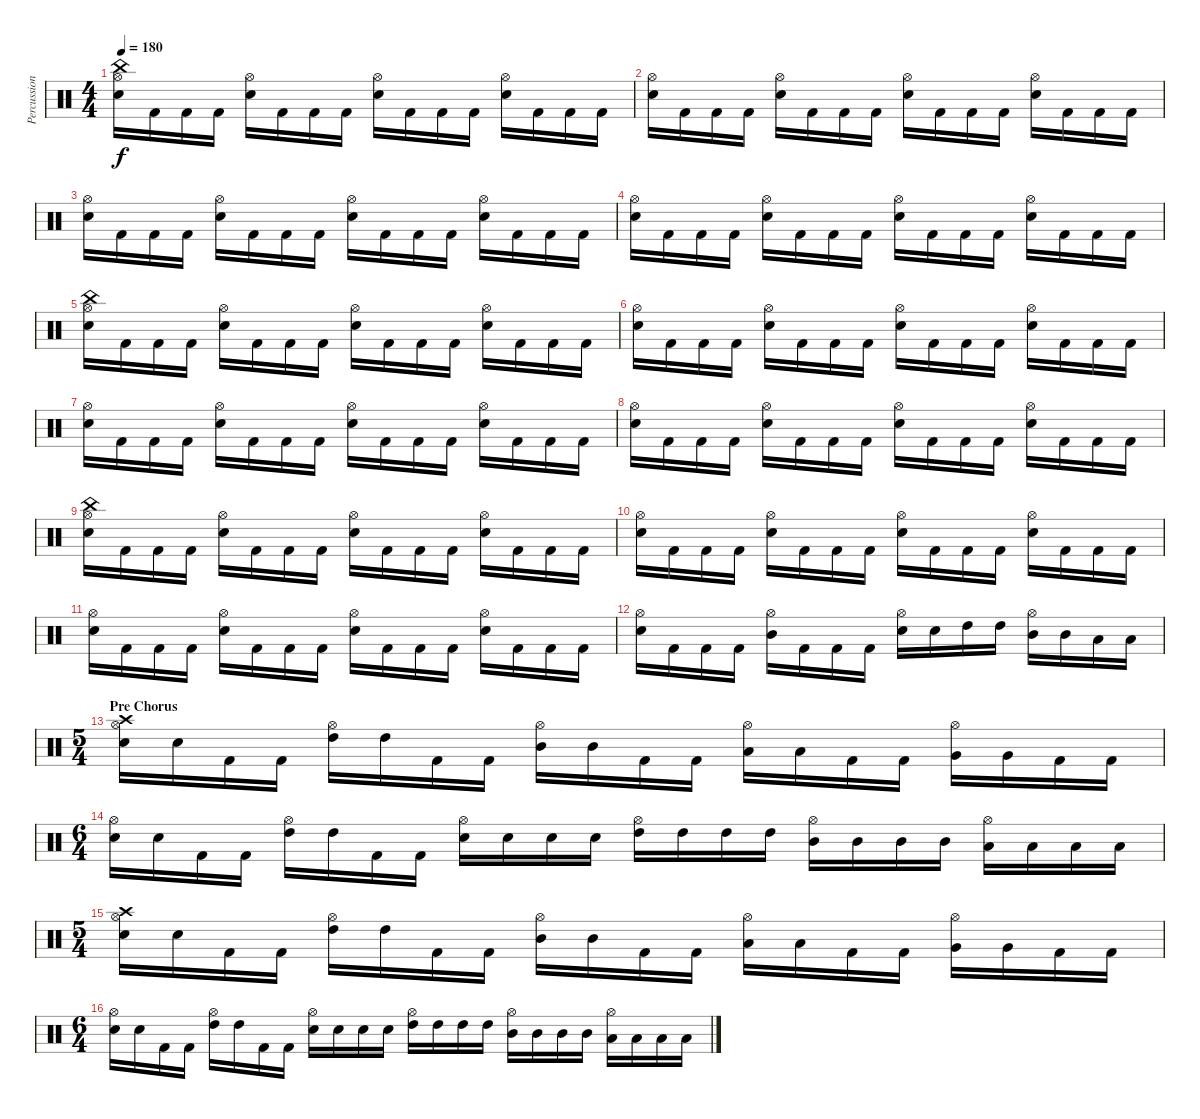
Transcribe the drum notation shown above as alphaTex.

\track ("Percussions" "Percussion") {instrument percussion}
\staff {score}
\articulation defaults
\ts (4 4)
\tempo 180
\clef neutral
\ks c
("China (hit)" "Hi-Hat (open)" "Electric Snare (hit)").16{dy f} "Kick (hit) 2".16 "Kick (hit) 2".16 "Kick (hit) 2".16 ("Hi-Hat (open)" "Electric Snare (hit)").16 "Kick (hit) 2".16 "Kick (hit) 2".16 "Kick (hit) 2".16 ("Hi-Hat (open)" "Electric Snare (hit)").16 "Kick (hit) 2".16 "Kick (hit) 2".16 "Kick (hit) 2".16 ("Hi-Hat (open)" "Electric Snare (hit)").16 "Kick (hit) 2".16 "Kick (hit) 2".16 "Kick (hit) 2".16 |
("Hi-Hat (open)" "Electric Snare (hit)").16 "Kick (hit) 2".16 "Kick (hit) 2".16 "Kick (hit) 2".16 ("Hi-Hat (open)" "Electric Snare (hit)").16 "Kick (hit) 2".16 "Kick (hit) 2".16 "Kick (hit) 2".16 ("Hi-Hat (open)" "Electric Snare (hit)").16 "Kick (hit) 2".16 "Kick (hit) 2".16 "Kick (hit) 2".16 ("Hi-Hat (open)" "Electric Snare (hit)").16 "Kick (hit) 2".16 "Kick (hit) 2".16 "Kick (hit) 2".16 |
("Hi-Hat (open)" "Electric Snare (hit)").16 "Kick (hit) 2".16 "Kick (hit) 2".16 "Kick (hit) 2".16 ("Hi-Hat (open)" "Electric Snare (hit)").16 "Kick (hit) 2".16 "Kick (hit) 2".16 "Kick (hit) 2".16 ("Hi-Hat (open)" "Electric Snare (hit)").16 "Kick (hit) 2".16 "Kick (hit) 2".16 "Kick (hit) 2".16 ("Hi-Hat (open)" "Electric Snare (hit)").16 "Kick (hit) 2".16 "Kick (hit) 2".16 "Kick (hit) 2".16 |
("Hi-Hat (open)" "Electric Snare (hit)").16 "Kick (hit) 2".16 "Kick (hit) 2".16 "Kick (hit) 2".16 ("Hi-Hat (open)" "Electric Snare (hit)").16 "Kick (hit) 2".16 "Kick (hit) 2".16 "Kick (hit) 2".16 ("Hi-Hat (open)" "Electric Snare (hit)").16 "Kick (hit) 2".16 "Kick (hit) 2".16 "Kick (hit) 2".16 ("Hi-Hat (open)" "Electric Snare (hit)").16 "Kick (hit) 2".16 "Kick (hit) 2".16 "Kick (hit) 2".16 |
("China (hit)" "Hi-Hat (open)" "Electric Snare (hit)").16 "Kick (hit) 2".16 "Kick (hit) 2".16 "Kick (hit) 2".16 ("Hi-Hat (open)" "Electric Snare (hit)").16 "Kick (hit) 2".16 "Kick (hit) 2".16 "Kick (hit) 2".16 ("Hi-Hat (open)" "Electric Snare (hit)").16 "Kick (hit) 2".16 "Kick (hit) 2".16 "Kick (hit) 2".16 ("Hi-Hat (open)" "Electric Snare (hit)").16 "Kick (hit) 2".16 "Kick (hit) 2".16 "Kick (hit) 2".16 |
("Hi-Hat (open)" "Electric Snare (hit)").16 "Kick (hit) 2".16 "Kick (hit) 2".16 "Kick (hit) 2".16 ("Hi-Hat (open)" "Electric Snare (hit)").16 "Kick (hit) 2".16 "Kick (hit) 2".16 "Kick (hit) 2".16 ("Hi-Hat (open)" "Electric Snare (hit)").16 "Kick (hit) 2".16 "Kick (hit) 2".16 "Kick (hit) 2".16 ("Hi-Hat (open)" "Electric Snare (hit)").16 "Kick (hit) 2".16 "Kick (hit) 2".16 "Kick (hit) 2".16 |
("Hi-Hat (open)" "Electric Snare (hit)").16 "Kick (hit) 2".16 "Kick (hit) 2".16 "Kick (hit) 2".16 ("Hi-Hat (open)" "Electric Snare (hit)").16 "Kick (hit) 2".16 "Kick (hit) 2".16 "Kick (hit) 2".16 ("Hi-Hat (open)" "Electric Snare (hit)").16 "Kick (hit) 2".16 "Kick (hit) 2".16 "Kick (hit) 2".16 ("Hi-Hat (open)" "Electric Snare (hit)").16 "Kick (hit) 2".16 "Kick (hit) 2".16 "Kick (hit) 2".16 |
("Hi-Hat (open)" "Electric Snare (hit)").16 "Kick (hit) 2".16 "Kick (hit) 2".16 "Kick (hit) 2".16 ("Hi-Hat (open)" "Electric Snare (hit)").16 "Kick (hit) 2".16 "Kick (hit) 2".16 "Kick (hit) 2".16 ("Hi-Hat (open)" "Electric Snare (hit)").16 "Kick (hit) 2".16 "Kick (hit) 2".16 "Kick (hit) 2".16 ("Hi-Hat (open)" "Electric Snare (hit)").16 "Kick (hit) 2".16 "Kick (hit) 2".16 "Kick (hit) 2".16 |
("China (hit)" "Hi-Hat (open)" "Electric Snare (hit)").16 "Kick (hit) 2".16 "Kick (hit) 2".16 "Kick (hit) 2".16 ("Hi-Hat (open)" "Electric Snare (hit)").16 "Kick (hit) 2".16 "Kick (hit) 2".16 "Kick (hit) 2".16 ("Hi-Hat (open)" "Electric Snare (hit)").16 "Kick (hit) 2".16 "Kick (hit) 2".16 "Kick (hit) 2".16 ("Hi-Hat (open)" "Electric Snare (hit)").16 "Kick (hit) 2".16 "Kick (hit) 2".16 "Kick (hit) 2".16 |
("Hi-Hat (open)" "Electric Snare (hit)").16 "Kick (hit) 2".16 "Kick (hit) 2".16 "Kick (hit) 2".16 ("Hi-Hat (open)" "Electric Snare (hit)").16 "Kick (hit) 2".16 "Kick (hit) 2".16 "Kick (hit) 2".16 ("Hi-Hat (open)" "Electric Snare (hit)").16 "Kick (hit) 2".16 "Kick (hit) 2".16 "Kick (hit) 2".16 ("Hi-Hat (open)" "Electric Snare (hit)").16 "Kick (hit) 2".16 "Kick (hit) 2".16 "Kick (hit) 2".16 |
("Hi-Hat (open)" "Electric Snare (hit)").16 "Kick (hit) 2".16 "Kick (hit) 2".16 "Kick (hit) 2".16 ("Hi-Hat (open)" "Electric Snare (hit)").16 "Kick (hit) 2".16 "Kick (hit) 2".16 "Kick (hit) 2".16 ("Hi-Hat (open)" "Electric Snare (hit)").16 "Kick (hit) 2".16 "Kick (hit) 2".16 "Kick (hit) 2".16 ("Hi-Hat (open)" "Electric Snare (hit)").16 "Kick (hit) 2".16 "Kick (hit) 2".16 "Kick (hit) 2".16 |
("Hi-Hat (open)" "Electric Snare (hit)").16 "Kick (hit) 2".16 "Kick (hit) 2".16 "Kick (hit) 2".16 ("Hi-Hat (open)" "Mid Tom (hit)").16 "Kick (hit) 2".16 "Kick (hit) 2".16 "Kick (hit) 2".16 ("Hi-Hat (open)" "Electric Snare (hit)").16 "Electric Snare (hit)".16 "High Tom (hit)".16 "High Tom (hit)".16 ("Hi-Hat (open)" "Mid Tom (hit)").16 "Mid Tom (hit)".16 "Low Tom (hit)".16 "Low Tom (hit)".16 |
\ts (5 4)
\section ("" "Pre Chorus")
("Crash high (hit)" "Hi-Hat (open)" "Electric Snare (hit)").16 "Electric Snare (hit)".16 "Kick (hit) 2".16 "Kick (hit) 2".16 ("Hi-Hat (open)" "High Tom (hit)").16 "High Tom (hit)".16 "Kick (hit) 2".16 "Kick (hit) 2".16 ("Hi-Hat (open)" "Mid Tom (hit)").16 "Mid Tom (hit)".16 "Kick (hit) 2".16 "Kick (hit) 2".16 ("Hi-Hat (open)" "Low Tom (hit)").16 "Low Tom (hit)".16 "Kick (hit) 2".16 "Kick (hit) 2".16 ("Hi-Hat (open)" "Very Low Tom (hit)").16 "Very Low Tom (hit)".16 "Kick (hit) 2".16 "Kick (hit) 2".16 |
\ts (6 4)
("Hi-Hat (open)" "Electric Snare (hit)").16 "Electric Snare (hit)".16 "Kick (hit) 2".16 "Kick (hit) 2".16 ("Hi-Hat (open)" "High Tom (hit)").16 "High Tom (hit)".16 "Kick (hit) 2".16 "Kick (hit) 2".16 ("Hi-Hat (open)" "Electric Snare (hit)").16 "Electric Snare (hit)".16 "Electric Snare (hit)".16 "Electric Snare (hit)".16 ("Hi-Hat (open)" "High Tom (hit)").16 "High Tom (hit)".16 "High Tom (hit)".16 "High Tom (hit)".16 ("Hi-Hat (open)" "Mid Tom (hit)").16 "Mid Tom (hit)".16 "Mid Tom (hit)".16 "Mid Tom (hit)".16 ("Hi-Hat (open)" "Low Tom (hit)").16 "Low Tom (hit)".16 "Low Tom (hit)".16 "Low Tom (hit)".16 |
\ts (5 4)
("Crash high (hit)" "Hi-Hat (open)" "Electric Snare (hit)").16 "Electric Snare (hit)".16 "Kick (hit) 2".16 "Kick (hit) 2".16 ("Hi-Hat (open)" "High Tom (hit)").16 "High Tom (hit)".16 "Kick (hit) 2".16 "Kick (hit) 2".16 ("Hi-Hat (open)" "Mid Tom (hit)").16 "Mid Tom (hit)".16 "Kick (hit) 2".16 "Kick (hit) 2".16 ("Hi-Hat (open)" "Low Tom (hit)").16 "Low Tom (hit)".16 "Kick (hit) 2".16 "Kick (hit) 2".16 ("Hi-Hat (open)" "Very Low Tom (hit)").16 "Very Low Tom (hit)".16 "Kick (hit) 2".16 "Kick (hit) 2".16 |
\ts (6 4)
("Hi-Hat (open)" "Electric Snare (hit)").16 "Electric Snare (hit)".16 "Kick (hit) 2".16 "Kick (hit) 2".16 ("Hi-Hat (open)" "High Tom (hit)").16 "High Tom (hit)".16 "Kick (hit) 2".16 "Kick (hit) 2".16 ("Hi-Hat (open)" "Electric Snare (hit)").16 "Electric Snare (hit)".16 "Electric Snare (hit)".16 "Electric Snare (hit)".16 ("Hi-Hat (open)" "High Tom (hit)").16 "High Tom (hit)".16 "High Tom (hit)".16 "High Tom (hit)".16 ("Hi-Hat (open)" "Mid Tom (hit)").16 "Mid Tom (hit)".16 "Mid Tom (hit)".16 "Mid Tom (hit)".16 ("Hi-Hat (open)" "Low Tom (hit)").16 "Low Tom (hit)".16 "Low Tom (hit)".16 "Low Tom (hit)".16
